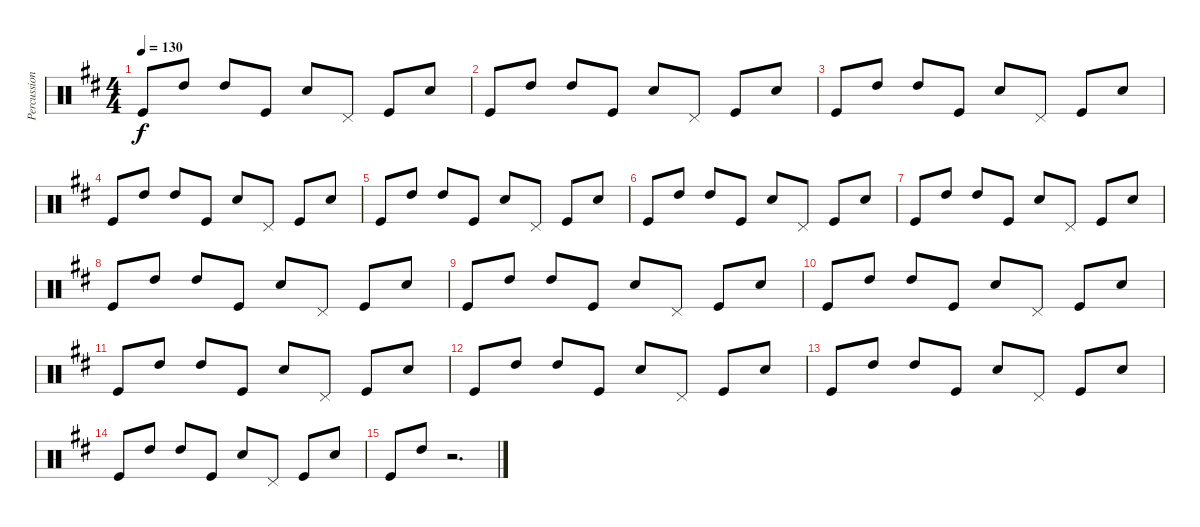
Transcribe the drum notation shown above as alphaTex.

\track ("Percussion" "Percussion") {instrument percussion}
\staff {score}
\articulation defaults
\ts (4 4)
\tempo 130
\clef neutral
\ks d "Kick (hit)".8{dy f} "High Tom (hit)".8 "High Tom (hit)".8 "Kick (hit)".8 "Snare (hit) 2".8 "Pedal Hi-Hat (hit)".8 "Kick (hit)".8 "Snare (hit) 2".8
|
"Kick (hit)".8 "High Tom (hit)".8 "High Tom (hit)".8 "Kick (hit)".8 "Snare (hit) 2".8 "Pedal Hi-Hat (hit)".8 "Kick (hit)".8 "Snare (hit) 2".8 |
"Kick (hit)".8 "High Tom (hit)".8 "High Tom (hit)".8 "Kick (hit)".8 "Snare (hit) 2".8 "Pedal Hi-Hat (hit)".8 "Kick (hit)".8 "Snare (hit) 2".8 |
"Kick (hit)".8 "High Tom (hit)".8 "High Tom (hit)".8 "Kick (hit)".8 "Snare (hit) 2".8 "Pedal Hi-Hat (hit)".8 "Kick (hit)".8 "Snare (hit) 2".8 |
"Kick (hit)".8 "High Tom (hit)".8 "High Tom (hit)".8 "Kick (hit)".8 "Snare (hit) 2".8 "Pedal Hi-Hat (hit)".8 "Kick (hit)".8 "Snare (hit) 2".8 |
"Kick (hit)".8 "High Tom (hit)".8 "High Tom (hit)".8 "Kick (hit)".8 "Snare (hit) 2".8 "Pedal Hi-Hat (hit)".8 "Kick (hit)".8 "Snare (hit) 2".8 |
"Kick (hit)".8 "High Tom (hit)".8 "High Tom (hit)".8 "Kick (hit)".8 "Snare (hit) 2".8 "Pedal Hi-Hat (hit)".8 "Kick (hit)".8 "Snare (hit) 2".8 |
"Kick (hit)".8 "High Tom (hit)".8 "High Tom (hit)".8 "Kick (hit)".8 "Snare (hit) 2".8 "Pedal Hi-Hat (hit)".8 "Kick (hit)".8 "Snare (hit) 2".8 |
"Kick (hit)".8 "High Tom (hit)".8 "High Tom (hit)".8 "Kick (hit)".8 "Snare (hit) 2".8 "Pedal Hi-Hat (hit)".8 "Kick (hit)".8 "Snare (hit) 2".8 |
"Kick (hit)".8 "High Tom (hit)".8 "High Tom (hit)".8 "Kick (hit)".8 "Snare (hit) 2".8 "Pedal Hi-Hat (hit)".8 "Kick (hit)".8 "Snare (hit) 2".8 |
"Kick (hit)".8 "High Tom (hit)".8 "High Tom (hit)".8 "Kick (hit)".8 "Snare (hit) 2".8 "Pedal Hi-Hat (hit)".8 "Kick (hit)".8 "Snare (hit) 2".8 |
"Kick (hit)".8 "High Tom (hit)".8 "High Tom (hit)".8 "Kick (hit)".8 "Snare (hit) 2".8 "Pedal Hi-Hat (hit)".8 "Kick (hit)".8 "Snare (hit) 2".8 |
"Kick (hit)".8 "High Tom (hit)".8 "High Tom (hit)".8 "Kick (hit)".8 "Snare (hit) 2".8 "Pedal Hi-Hat (hit)".8 "Kick (hit)".8 "Snare (hit) 2".8 |
"Kick (hit)".8 "High Tom (hit)".8 "High Tom (hit)".8 "Kick (hit)".8 "Snare (hit) 2".8 "Pedal Hi-Hat (hit)".8 "Kick (hit)".8 "Snare (hit) 2".8 |
"Kick (hit)".8 "High Tom (hit)".8 r.2{d}
